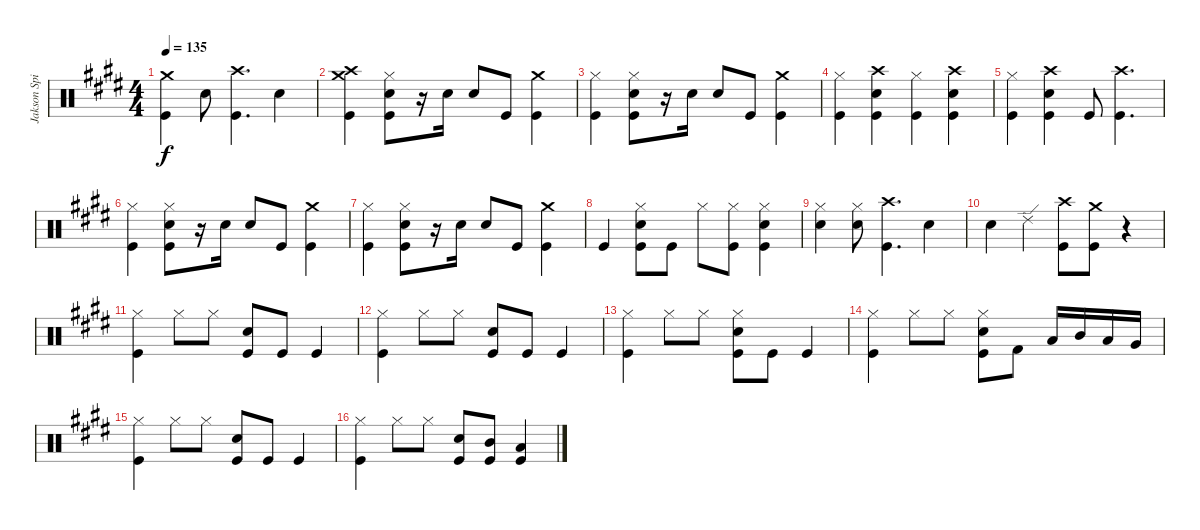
\track ("Jakson Spires Drums" "Jakson Spi") {instrument percussion}
\staff {score}
\articulation defaults
\ts (4 4)
\tempo 135
\clef neutral
\ks e
("Crash medium (hit)" "Kick (hit)").4{dy f} "Snare (hit) 2".8 ("Crash high (hit)" "Kick (hit)").4{d} "Snare (hit) 2".4 |
("Crash high (hit)" "Crash medium (hit)" "Kick (hit)").4 ("Hi-Hat (closed)" "Snare (hit) 2" "Kick (hit)").8 r.16 "Snare (hit) 2".16 "Snare (hit) 2".8 "Kick (hit)".8 ("Crash medium (hit)" "Kick (hit)").4 |
("Hi-Hat (closed)" "Kick (hit)").4 ("Hi-Hat (closed)" "Snare (hit) 2" "Kick (hit)").8 r.16 "Snare (hit) 2".16 "Snare (hit) 2".8 "Kick (hit)".8 ("Crash medium (hit)" "Kick (hit)").4 |
("Hi-Hat (closed)" "Kick (hit)").4 ("Crash high (hit)" "Snare (hit) 2" "Kick (hit)").4 ("Hi-Hat (closed)" "Kick (hit)").4 ("Crash high (hit)" "Snare (hit) 2" "Kick (hit)").4 |
("Hi-Hat (closed)" "Kick (hit)").4 ("Crash high (hit)" "Snare (hit) 2" "Kick (hit)").4 "Kick (hit)".8 ("Crash high (hit)" "Kick (hit)").4{d} |
("Hi-Hat (closed)" "Kick (hit)").4 ("Hi-Hat (closed)" "Snare (hit) 2" "Kick (hit)").8 r.16 "Snare (hit) 2".16 "Snare (hit) 2".8 "Kick (hit)".8 ("Crash medium (hit)" "Kick (hit)").4 |
("Hi-Hat (closed)" "Kick (hit)").4 ("Hi-Hat (closed)" "Snare (hit) 2" "Kick (hit)").8 r.16 "Snare (hit) 2".16 "Snare (hit) 2".8 "Kick (hit)".8 ("Crash medium (hit)" "Kick (hit)").4 |
"Kick (hit)".4 ("Hi-Hat (closed)" "Snare (hit) 2" "Kick (hit)").8 "Kick (hit)".8 "Hi-Hat (closed)".8 ("Hi-Hat (closed)" "Kick (hit)").8 ("Hi-Hat (closed)" "Snare (hit) 2" "Kick (hit)").4 |
("Hi-Hat (closed)" "Snare (hit) 2").4 ("Hi-Hat (closed)" "Snare (hit) 2").8 ("Crash high (hit)" "Kick (hit)").4{d} "Snare (hit) 2".4 |
"Snare (hit) 2".4 "Ride (edge) 2".4 ("Crash high (hit)" "Kick (hit)").8 ("Crash medium (hit)" "Kick (hit)").8 r.4 |
("Hi-Hat (closed)" "Kick (hit)").4 "Hi-Hat (closed)".8 "Hi-Hat (closed)".8 ("Snare (hit) 2" "Kick (hit)").8 "Kick (hit)".8 "Kick (hit)".4 |
("Hi-Hat (closed)" "Kick (hit)").4 "Hi-Hat (closed)".8 "Hi-Hat (closed)".8 ("Snare (hit) 2" "Kick (hit)").8 "Kick (hit)".8 "Kick (hit)".4 |
("Hi-Hat (closed)" "Kick (hit)").4 "Hi-Hat (closed)".8 "Hi-Hat (closed)".8 ("Hi-Hat (closed)" "Snare (hit) 2" "Kick (hit)").8 "Kick (hit)".8 "Kick (hit)".4 |
("Hi-Hat (closed)" "Kick (hit)").4 "Hi-Hat (closed)".8 "Hi-Hat (closed)".8 ("Hi-Hat (closed)" "Snare (hit) 2" "Kick (hit)").8 "Kick (hit) 2".8 "Low Tom (hit)".16 "Mid Tom (hit)".16 "Low Tom (hit)".16 "Very Low Tom (hit)".16 |
("Hi-Hat (closed)" "Kick (hit)").4 "Hi-Hat (closed)".8 "Hi-Hat (closed)".8 ("Snare (hit) 2" "Kick (hit)").8 "Kick (hit)".8 "Kick (hit)".4 |
("Hi-Hat (closed)" "Kick (hit)").4 "Hi-Hat (closed)".8 "Hi-Hat (closed)".8 ("Snare (hit) 2" "Kick (hit)").8 ("Mid Tom (hit)" "Kick (hit)").8 ("Low Tom (hit)" "Kick (hit)").4
